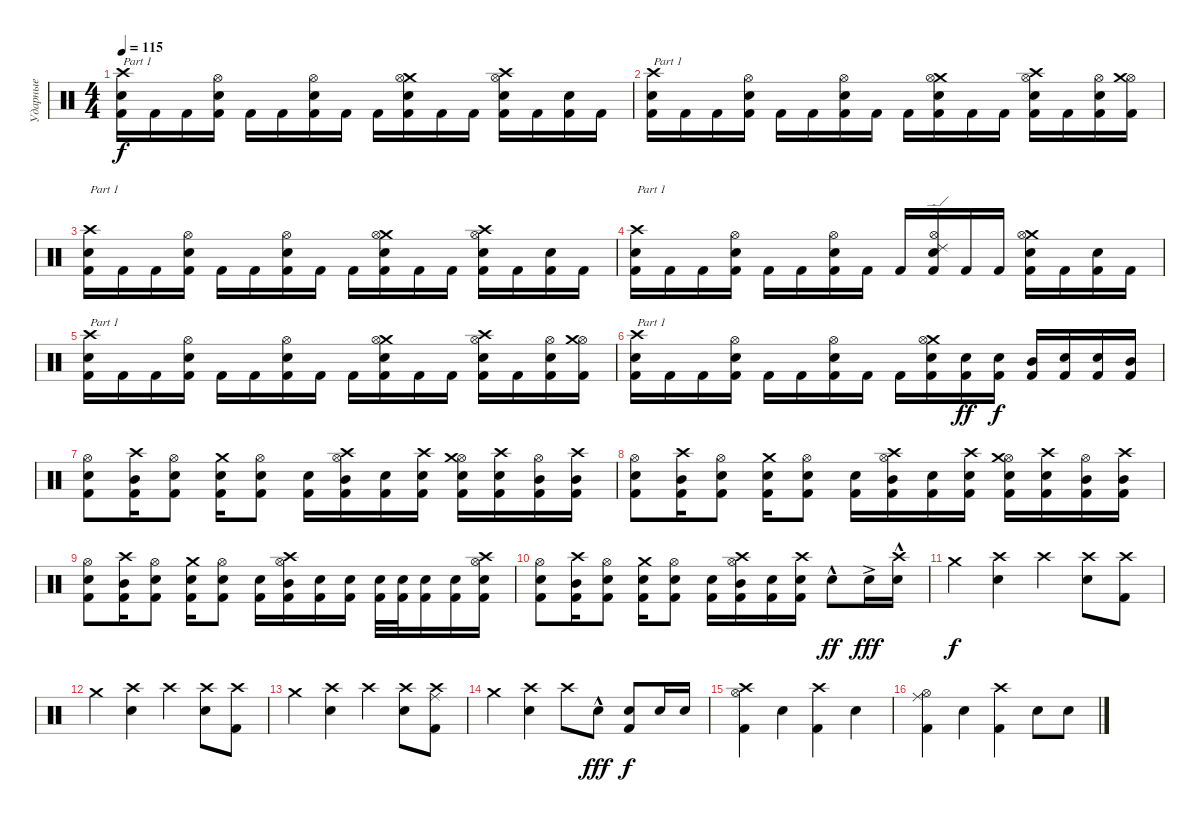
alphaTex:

\track ("Ударные" "Ударные") {instrument percussion}
\staff {score}
\articulation defaults
\ts (4 4)
\tempo 115
\clef neutral
\ks c
("Crash high (hit)" "Snare (hit) 2" "Kick (hit) 2").16{txt "Part 1" dy f} "Kick (hit) 2".16 "Kick (hit) 2".16 ("Hi-Hat (open)" "Snare (hit) 2" "Kick (hit) 2").16 "Kick (hit) 2".16 "Kick (hit) 2".16 ("Hi-Hat (open)" "Snare (hit) 2" "Kick (hit) 2").16 "Kick (hit) 2".16 "Kick (hit) 2".16 ("Crash medium (hit)" "Hi-Hat (open)" "Snare (hit) 2" "Kick (hit) 2").16 "Kick (hit) 2".16 "Kick (hit) 2".16 ("Crash high (hit)" "Hi-Hat (open)" "Snare (hit) 2" "Kick (hit) 2").16 "Kick (hit) 2".16 ("Snare (hit) 2" "Kick (hit) 2").16 "Kick (hit) 2".16 |
("Crash high (hit)" "Snare (hit) 2" "Kick (hit) 2").16{txt "Part 1"} "Kick (hit) 2".16 "Kick (hit) 2".16 ("Hi-Hat (open)" "Snare (hit) 2" "Kick (hit) 2").16 "Kick (hit) 2".16 "Kick (hit) 2".16 ("Hi-Hat (open)" "Snare (hit) 2" "Kick (hit) 2").16 "Kick (hit) 2".16 "Kick (hit) 2".16 ("Crash medium (hit)" "Hi-Hat (open)" "Snare (hit) 2" "Kick (hit) 2").16 "Kick (hit) 2".16 "Kick (hit) 2".16 ("Crash high (hit)" "Hi-Hat (open)" "Snare (hit) 2" "Kick (hit) 2").16 "Kick (hit) 2".16 ("Hi-Hat (open)" "Snare (hit) 2" "Kick (hit) 2").16 ("Hi-Hat (open)" "Crash medium (hit)" "Kick (hit) 2").16 |
("Crash high (hit)" "Snare (hit) 2" "Kick (hit) 2").16{txt "Part 1"} "Kick (hit) 2".16 "Kick (hit) 2".16 ("Hi-Hat (open)" "Snare (hit) 2" "Kick (hit) 2").16 "Kick (hit) 2".16 "Kick (hit) 2".16 ("Hi-Hat (open)" "Snare (hit) 2" "Kick (hit) 2").16 "Kick (hit) 2".16 "Kick (hit) 2".16 ("Crash medium (hit)" "Hi-Hat (open)" "Snare (hit) 2" "Kick (hit) 2").16 "Kick (hit) 2".16 "Kick (hit) 2".16 ("Crash high (hit)" "Hi-Hat (open)" "Snare (hit) 2" "Kick (hit) 2").16 "Kick (hit) 2".16 ("Snare (hit) 2" "Kick (hit) 2").16 "Kick (hit) 2".16 |
("Crash high (hit)" "Snare (hit) 2" "Kick (hit) 2").16{txt "Part 1"} "Kick (hit) 2".16 "Kick (hit) 2".16 ("Hi-Hat (open)" "Snare (hit) 2" "Kick (hit) 2").16 "Kick (hit) 2".16 "Kick (hit) 2".16 ("Hi-Hat (open)" "Snare (hit) 2" "Kick (hit) 2").16 "Kick (hit) 2".16 "Kick (hit) 2".16 ("Ride (edge) 2" "Hi-Hat (open)" "Snare (hit) 2" "Kick (hit) 2").16 "Kick (hit) 2".16 "Kick (hit) 2".16 ("Crash medium (hit)" "Hi-Hat (open)" "Snare (hit) 2" "Kick (hit) 2").16 "Kick (hit) 2".16 ("Snare (hit) 2" "Kick (hit) 2").16 "Kick (hit) 2".16 |
("Crash high (hit)" "Snare (hit) 2" "Kick (hit) 2").16{txt "Part 1"} "Kick (hit) 2".16 "Kick (hit) 2".16 ("Hi-Hat (open)" "Snare (hit) 2" "Kick (hit) 2").16 "Kick (hit) 2".16 "Kick (hit) 2".16 ("Hi-Hat (open)" "Snare (hit) 2" "Kick (hit) 2").16 "Kick (hit) 2".16 "Kick (hit) 2".16 ("Crash medium (hit)" "Hi-Hat (open)" "Snare (hit) 2" "Kick (hit) 2").16 "Kick (hit) 2".16 "Kick (hit) 2".16 ("Crash high (hit)" "Hi-Hat (open)" "Snare (hit) 2" "Kick (hit) 2").16 "Kick (hit) 2".16 ("Hi-Hat (open)" "Snare (hit) 2" "Kick (hit) 2").16 ("Hi-Hat (open)" "Crash medium (hit)" "Kick (hit) 2").16 |
("Crash high (hit)" "Snare (hit) 2" "Kick (hit) 2").16{txt "Part 1"} "Kick (hit) 2".16 "Kick (hit) 2".16 ("Hi-Hat (open)" "Snare (hit) 2" "Kick (hit) 2").16 "Kick (hit) 2".16 "Kick (hit) 2".16 ("Hi-Hat (open)" "Snare (hit) 2" "Kick (hit) 2").16 "Kick (hit) 2".16 "Kick (hit) 2".16 ("Crash medium (hit)" "Hi-Hat (open)" "Snare (hit) 2" "Kick (hit) 2").16 ("Snare (hit) 2" "Kick (hit) 2").16{dy ff} ("Electric Snare (hit)" "Kick (hit) 2").16{dy f} ("Mid Tom (hit)" "Kick (hit) 2").16 ("Snare (hit) 2" "Kick (hit) 2").16 ("Electric Snare (hit)" "Kick (hit) 2").16 ("Mid Tom (hit)" "Kick (hit) 2").16 |
("Hi-Hat (open)" "Snare (hit) 2" "Kick (hit) 2").8 ("Crash high (hit)" "Mid Tom (hit)" "Kick (hit) 2").16 ("Hi-Hat (open)" "Snare (hit) 2" "Kick (hit) 2").8 ("Crash medium (hit)" "Snare (hit) 2" "Kick (hit) 2").16 ("Hi-Hat (open)" "Snare (hit) 2" "Kick (hit) 2").8 ("Snare (hit) 2" "Kick (hit) 2").16 ("Crash high (hit)" "Hi-Hat (open)" "Mid Tom (hit)" "Kick (hit) 2").16 ("Snare (hit) 2" "Kick (hit) 2").16 ("Crash high (hit)" "Snare (hit) 2" "Kick (hit) 2").16 ("Hi-Hat (open)" "Crash medium (hit)" "Snare (hit) 2" "Kick (hit) 2").16 ("Crash high (hit)" "Snare (hit) 2" "Kick (hit) 2").16 ("Hi-Hat (open)" "Mid Tom (hit)" "Kick (hit) 2").16 ("Crash high (hit)" "Mid Tom (hit)" "Kick (hit) 2").16 |
("Hi-Hat (open)" "Snare (hit) 2" "Kick (hit) 2").8 ("Crash high (hit)" "Mid Tom (hit)" "Kick (hit) 2").16 ("Hi-Hat (open)" "Snare (hit) 2" "Kick (hit) 2").8 ("Crash medium (hit)" "Snare (hit) 2" "Kick (hit) 2").16 ("Hi-Hat (open)" "Snare (hit) 2" "Kick (hit) 2").8 ("Snare (hit) 2" "Kick (hit) 2").16 ("Crash high (hit)" "Hi-Hat (open)" "Mid Tom (hit)" "Kick (hit) 2").16 ("Snare (hit) 2" "Kick (hit) 2").16 ("Crash high (hit)" "Snare (hit) 2" "Kick (hit) 2").16 ("Hi-Hat (open)" "Crash medium (hit)" "Snare (hit) 2" "Kick (hit) 2").16 ("Crash high (hit)" "Snare (hit) 2" "Kick (hit) 2").16 ("Hi-Hat (open)" "Mid Tom (hit)" "Kick (hit) 2").16 ("Crash high (hit)" "Mid Tom (hit)" "Kick (hit) 2").16 |
("Hi-Hat (open)" "Snare (hit) 2" "Kick (hit) 2").8 ("Crash high (hit)" "Mid Tom (hit)" "Kick (hit) 2").16 ("Hi-Hat (open)" "Snare (hit) 2" "Kick (hit) 2").8 ("Crash medium (hit)" "Snare (hit) 2" "Kick (hit) 2").16 ("Hi-Hat (open)" "Snare (hit) 2" "Kick (hit) 2").8 ("Snare (hit) 2" "Kick (hit) 2").16 ("Crash high (hit)" "Hi-Hat (open)" "Mid Tom (hit)" "Kick (hit) 2").16 ("Snare (hit) 2" "Kick (hit) 2").16 ("Snare (hit) 2" "Kick (hit) 2").16 ("Snare (hit) 2" "Kick (hit) 2").32 ("Snare (hit) 2" "Kick (hit) 2").32 ("Snare (hit) 2" "Kick (hit) 2").16 ("Snare (hit) 2" "Kick (hit) 2").16 ("Crash high (hit)" "Hi-Hat (open)" "Snare (hit) 2" "Kick (hit) 2").16 |
("Hi-Hat (open)" "Snare (hit) 2" "Kick (hit) 2").8 ("Crash high (hit)" "Mid Tom (hit)" "Kick (hit) 2").16 ("Hi-Hat (open)" "Snare (hit) 2" "Kick (hit) 2").8 ("Crash medium (hit)" "Snare (hit) 2" "Kick (hit) 2").16 ("Hi-Hat (open)" "Snare (hit) 2" "Kick (hit) 2").8 ("Snare (hit) 2" "Kick (hit) 2").16 ("Crash high (hit)" "Hi-Hat (open)" "Mid Tom (hit)" "Kick (hit) 2").16 ("Snare (hit) 2" "Kick (hit) 2").16 ("Crash high (hit)" "Snare (hit) 2" "Kick (hit) 2").16 "Snare (hit) 2"{hac}.8{dy ff} "Snare (hit) 2"{ac}.16{dy fff} ("Crash high (hit)" "Snare (hit) 2"{hac}).16 |
"Crash medium (hit)".4{dy f} ("Crash high (hit)" "Snare (hit) 2").4 "Crash high (hit)".4 ("Crash high (hit)" "Snare (hit) 2").8 ("Crash high (hit)" "Kick (hit) 2").8 |
"Crash medium (hit)".4 ("Crash high (hit)" "Snare (hit) 2").4 "Crash high (hit)".4 ("Crash high (hit)" "Snare (hit) 2").8 ("Crash high (hit)" "Kick (hit) 2").8 |
"Crash medium (hit)".4 ("Crash high (hit)" "Snare (hit) 2").4 "Crash high (hit)".4 ("Crash high (hit)" "Snare (hit) 2").8 ("Crash high (hit)" "Ride (middle)" "Kick (hit) 2").8 |
"Crash medium (hit)".4 ("Crash high (hit)" "Snare (hit) 2").4 "Crash high (hit)".8 "Snare (hit) 2"{hac}.8{dy fff} ("Snare (hit) 2" "Kick (hit) 2").8{dy f} "Snare (hit) 2".16 "Electric Snare (hit)".16 |
("Crash high (hit)" "Hi-Hat (open)" "Kick (hit) 2").4 "Snare (hit) 2".4 ("Crash high (hit)" "Kick (hit) 2").4 "Snare (hit) 2".4 |
("Ride (middle)" "Hi-Hat (open)" "Kick (hit) 2").4 "Snare (hit) 2".4 ("Crash high (hit)" "Kick (hit) 2").4 "Snare (hit) 2".8 "Snare (hit) 2".8
